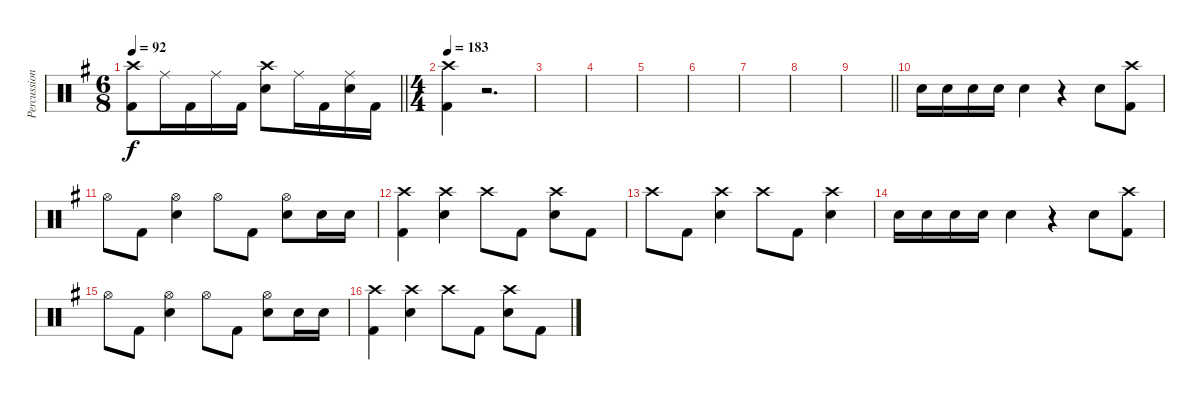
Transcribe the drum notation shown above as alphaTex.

\track ("Percussion" "Percussion") {instrument percussion}
\staff {score}
\articulation defaults
\ts (6 8)
\tempo 92
\clef neutral
\barLineRight lightlight
\ks g
("Crash high (hit)" "Kick (hit) 2").8{dy f} "Ride (middle)".16 "Kick (hit) 2".16 "Ride (middle)".16 "Kick (hit) 2".16 ("Electric Snare (hit)" "Crash high (hit)").8 "Ride (middle)".16 "Kick (hit) 2".16 ("Electric Snare (hit)" "Ride (middle)").16 "Kick (hit) 2".16 |
\ts (4 4)
\tempo 183
("Kick (hit) 2" "Crash high (hit)").4 r.2{d} |
|
|
|
|
|
|
\barLineRight lightlight
|
"Electric Snare (hit)".16 "Electric Snare (hit)".16 "Electric Snare (hit)".16 "Electric Snare (hit)".16 "Electric Snare (hit)".4 r.4 "Electric Snare (hit)".8 ("Kick (hit) 2" "Crash high (hit)").8 |
"Hi-Hat (open)".8 "Kick (hit) 2".8 ("Hi-Hat (open)" "Electric Snare (hit)").4 "Hi-Hat (open)".8 "Kick (hit) 2".8 ("Electric Snare (hit)" "Hi-Hat (open)").8 "Electric Snare (hit)".16 "Electric Snare (hit)".16 |
("Kick (hit) 2" "Crash high (hit)").4 ("Electric Snare (hit)" "Crash high (hit)").4 "Crash high (hit)".8 "Kick (hit) 2".8 ("Electric Snare (hit)" "Crash high (hit)").8 "Kick (hit) 2".8 |
"Crash high (hit)".8 "Kick (hit) 2".8 ("Crash high (hit)" "Electric Snare (hit)").4 "Crash high (hit)".8 "Kick (hit) 2".8 ("Electric Snare (hit)" "Crash high (hit)").4 |
"Electric Snare (hit)".16 "Electric Snare (hit)".16 "Electric Snare (hit)".16 "Electric Snare (hit)".16 "Electric Snare (hit)".4 r.4 "Electric Snare (hit)".8 ("Kick (hit) 2" "Crash high (hit)").8 |
"Hi-Hat (open)".8 "Kick (hit) 2".8 ("Hi-Hat (open)" "Electric Snare (hit)").4 "Hi-Hat (open)".8 "Kick (hit) 2".8 ("Electric Snare (hit)" "Hi-Hat (open)").8 "Electric Snare (hit)".16 "Electric Snare (hit)".16 |
("Kick (hit) 2" "Crash high (hit)").4 ("Electric Snare (hit)" "Crash high (hit)").4 "Crash high (hit)".8 "Kick (hit) 2".8 ("Electric Snare (hit)" "Crash high (hit)").8 "Kick (hit) 2".8
